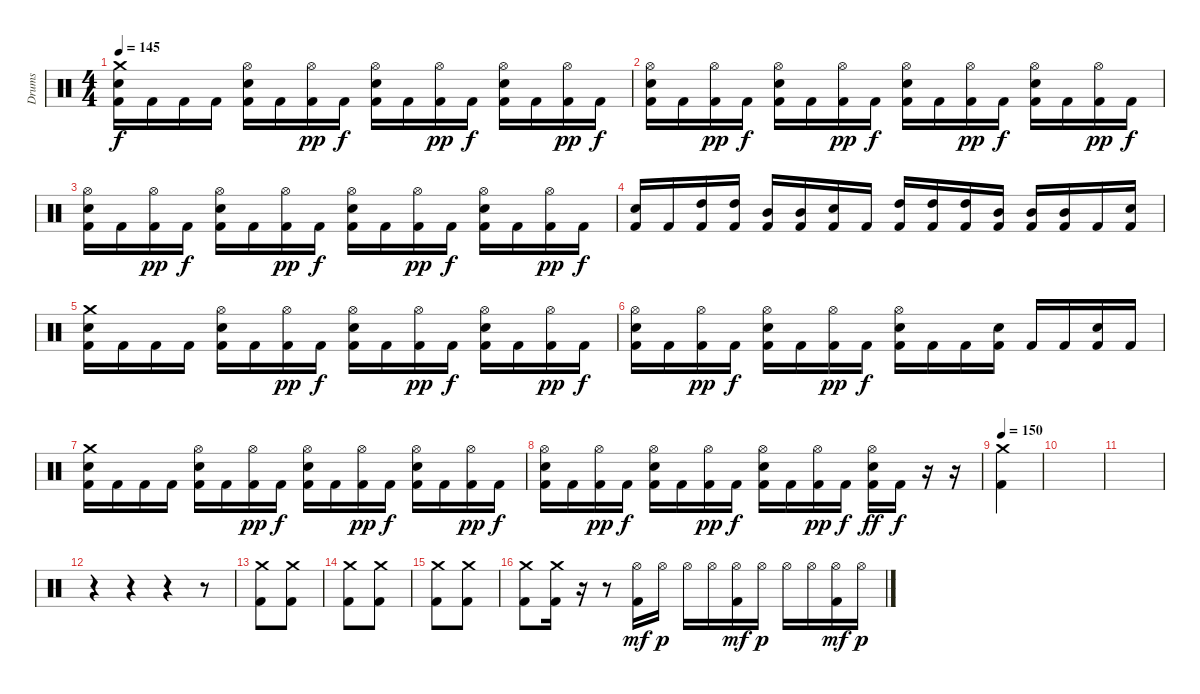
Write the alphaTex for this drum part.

\track ("Drums" "Drums") {instrument percussion}
\staff {score}
\articulation defaults
\ts (4 4)
\tempo 145
\clef neutral
\ks c
("Crash medium (hit)" "Snare (hit) 2" "Kick (hit) 2").16{dy f} "Kick (hit) 2".16 "Kick (hit) 2".16 "Kick (hit) 2".16 ("Hi-Hat (open)" "Snare (hit) 2" "Kick (hit) 2").16 "Kick (hit) 2".16 ("Hi-Hat (open)" "Kick (hit) 2").16{dy pp} "Kick (hit) 2".16{dy f} ("Hi-Hat (open)" "Snare (hit) 2" "Kick (hit) 2").16 "Kick (hit) 2".16 ("Hi-Hat (open)" "Kick (hit) 2").16{dy pp} "Kick (hit) 2".16{dy f} ("Hi-Hat (open)" "Snare (hit) 2" "Kick (hit) 2").16 "Kick (hit) 2".16 ("Hi-Hat (open)" "Kick (hit) 2").16{dy pp} "Kick (hit) 2".16{dy f} |
("Hi-Hat (open)" "Snare (hit) 2" "Kick (hit) 2").16 "Kick (hit) 2".16 ("Hi-Hat (open)" "Kick (hit) 2").16{dy pp} "Kick (hit) 2".16{dy f} ("Hi-Hat (open)" "Snare (hit) 2" "Kick (hit) 2").16 "Kick (hit) 2".16 ("Hi-Hat (open)" "Kick (hit) 2").16{dy pp} "Kick (hit) 2".16{dy f} ("Hi-Hat (open)" "Snare (hit) 2" "Kick (hit) 2").16 "Kick (hit) 2".16 ("Hi-Hat (open)" "Kick (hit) 2").16{dy pp} "Kick (hit) 2".16{dy f} ("Hi-Hat (open)" "Snare (hit) 2" "Kick (hit) 2").16 "Kick (hit) 2".16 ("Hi-Hat (open)" "Kick (hit) 2").16{dy pp} "Kick (hit) 2".16{dy f} |
("Hi-Hat (open)" "Snare (hit) 2" "Kick (hit) 2").16 "Kick (hit) 2".16 ("Hi-Hat (open)" "Kick (hit) 2").16{dy pp} "Kick (hit) 2".16{dy f} ("Hi-Hat (open)" "Snare (hit) 2" "Kick (hit) 2").16 "Kick (hit) 2".16 ("Hi-Hat (open)" "Kick (hit) 2").16{dy pp} "Kick (hit) 2".16{dy f} ("Hi-Hat (open)" "Snare (hit) 2" "Kick (hit) 2").16 "Kick (hit) 2".16 ("Hi-Hat (open)" "Kick (hit) 2").16{dy pp} "Kick (hit) 2".16{dy f} ("Hi-Hat (open)" "Snare (hit) 2" "Kick (hit) 2").16 "Kick (hit) 2".16 ("Hi-Hat (open)" "Kick (hit) 2").16{dy pp} "Kick (hit) 2".16{dy f} |
("Snare (hit) 2" "Kick (hit) 2").16 "Kick (hit) 2".16 ("High Tom (hit)" "Kick (hit) 2").16 ("High Tom (hit)" "Kick (hit) 2").16 ("Mid Tom (hit)" "Kick (hit) 2").16 ("Mid Tom (hit)" "Kick (hit) 2").16 ("Snare (hit) 2" "Kick (hit) 2").16 "Kick (hit) 2".16 ("High Tom (hit)" "Kick (hit) 2").16 ("High Tom (hit)" "Kick (hit) 2").16 ("High Tom (hit)" "Kick (hit) 2").16 ("Mid Tom (hit)" "Kick (hit) 2").16 ("Mid Tom (hit)" "Kick (hit) 2").16 ("Mid Tom (hit)" "Kick (hit) 2").16 "Kick (hit) 2".16 ("Snare (hit) 2" "Kick (hit) 2").16 |
("Crash medium (hit)" "Snare (hit) 2" "Kick (hit) 2").16 "Kick (hit) 2".16 "Kick (hit) 2".16 "Kick (hit) 2".16 ("Hi-Hat (open)" "Snare (hit) 2" "Kick (hit) 2").16 "Kick (hit) 2".16 ("Hi-Hat (open)" "Kick (hit) 2").16{dy pp} "Kick (hit) 2".16{dy f} ("Hi-Hat (open)" "Snare (hit) 2" "Kick (hit) 2").16 "Kick (hit) 2".16 ("Hi-Hat (open)" "Kick (hit) 2").16{dy pp} "Kick (hit) 2".16{dy f} ("Hi-Hat (open)" "Snare (hit) 2" "Kick (hit) 2").16 "Kick (hit) 2".16 ("Hi-Hat (open)" "Kick (hit) 2").16{dy pp} "Kick (hit) 2".16{dy f} |
("Hi-Hat (open)" "Snare (hit) 2" "Kick (hit) 2").16 "Kick (hit) 2".16 ("Hi-Hat (open)" "Kick (hit) 2").16{dy pp} "Kick (hit) 2".16{dy f} ("Hi-Hat (open)" "Snare (hit) 2" "Kick (hit) 2").16 "Kick (hit) 2".16 ("Hi-Hat (open)" "Kick (hit) 2").16{dy pp} "Kick (hit) 2".16{dy f} ("Hi-Hat (open)" "Snare (hit) 2" "Kick (hit) 2").16 "Kick (hit) 2".16 "Kick (hit) 2".16 ("Snare (hit) 2" "Kick (hit) 2").16 "Kick (hit) 2".16 "Kick (hit) 2".16 ("Snare (hit) 2" "Kick (hit) 2").16 "Kick (hit) 2".16 |
("Crash medium (hit)" "Snare (hit) 2" "Kick (hit) 2").16 "Kick (hit) 2".16 "Kick (hit) 2".16 "Kick (hit) 2".16 ("Hi-Hat (open)" "Snare (hit) 2" "Kick (hit) 2").16 "Kick (hit) 2".16 ("Hi-Hat (open)" "Kick (hit) 2").16{dy pp} "Kick (hit) 2".16{dy f} ("Hi-Hat (open)" "Snare (hit) 2" "Kick (hit) 2").16 "Kick (hit) 2".16 ("Hi-Hat (open)" "Kick (hit) 2").16{dy pp} "Kick (hit) 2".16{dy f} ("Hi-Hat (open)" "Snare (hit) 2" "Kick (hit) 2").16 "Kick (hit) 2".16 ("Hi-Hat (open)" "Kick (hit) 2").16{dy pp} "Kick (hit) 2".16{dy f} |
("Hi-Hat (open)" "Snare (hit) 2" "Kick (hit) 2").16 "Kick (hit) 2".16 ("Hi-Hat (open)" "Kick (hit) 2").16{dy pp} "Kick (hit) 2".16{dy f} ("Hi-Hat (open)" "Snare (hit) 2" "Kick (hit) 2").16 "Kick (hit) 2".16 ("Hi-Hat (open)" "Kick (hit) 2").16{dy pp} "Kick (hit) 2".16{dy f} ("Hi-Hat (open)" "Snare (hit) 2" "Kick (hit) 2").16 "Kick (hit) 2".16 ("Hi-Hat (open)" "Kick (hit) 2").16{dy pp} "Kick (hit) 2".16{dy f} ("Hi-Hat (open)" "Snare (hit) 2" "Kick (hit) 2").16{dy ff} "Kick (hit) 2".16{dy f} r.16 r.16 |
\tempo 150
("Crash medium (hit)" "Kick (hit) 2").4 |
|
|
r.4 r.4 r.4 r.8 |
("Crash medium (hit)" "Kick (hit) 2").8 ("Crash medium (hit)" "Kick (hit) 2").8 |
("Crash medium (hit)" "Kick (hit) 2").8 ("Crash medium (hit)" "Kick (hit) 2").8 |
("Crash medium (hit)" "Kick (hit) 2").8 ("Crash medium (hit)" "Kick (hit) 2").8 |
("Crash medium (hit)" "Kick (hit) 2").8 ("Crash medium (hit)" "Kick (hit) 2").16 r.16 r.8 ("Hi-Hat (open)" "Kick (hit) 2").16{dy mf} "Hi-Hat (open)".16{dy p} "Hi-Hat (open)".16 "Hi-Hat (open)".16 ("Hi-Hat (open)" "Kick (hit) 2").16{dy mf} "Hi-Hat (open)".16{dy p} "Hi-Hat (open)".16 "Hi-Hat (open)".16 ("Hi-Hat (open)" "Kick (hit) 2").16{dy mf} "Hi-Hat (open)".16{dy p}
